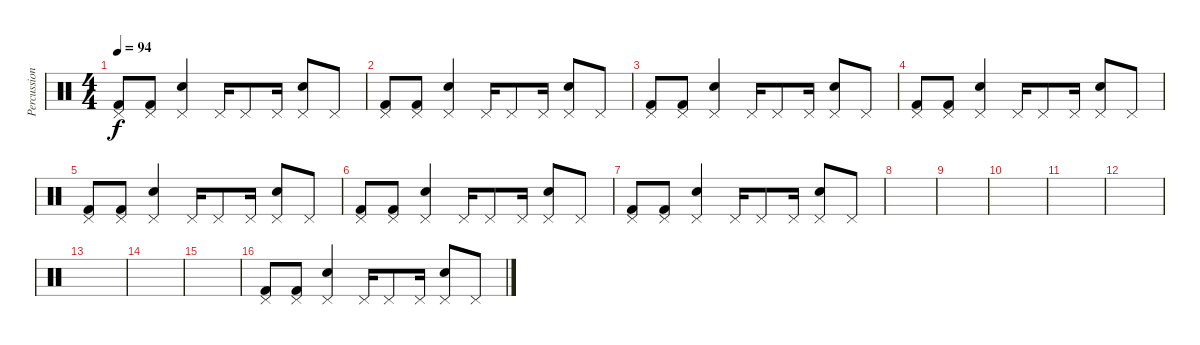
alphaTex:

\track ("Percussions" "Percussion") {instrument percussion}
\staff {score}
\articulation defaults
\ts (4 4)
\tempo 94
\clef neutral
\ks c
("Pedal Hi-Hat (hit)" "Kick (hit) 2").8{dy f} ("Pedal Hi-Hat (hit)" "Kick (hit) 2").8 ("Pedal Hi-Hat (hit)" "Electric Snare (hit)").4 "Pedal Hi-Hat (hit)".16 "Pedal Hi-Hat (hit)".8 "Pedal Hi-Hat (hit)".16 ("Pedal Hi-Hat (hit)" "Electric Snare (hit)").8 "Pedal Hi-Hat (hit)".8 |
("Pedal Hi-Hat (hit)" "Kick (hit) 2").8 ("Pedal Hi-Hat (hit)" "Kick (hit) 2").8 ("Pedal Hi-Hat (hit)" "Electric Snare (hit)").4 "Pedal Hi-Hat (hit)".16 "Pedal Hi-Hat (hit)".8 "Pedal Hi-Hat (hit)".16 ("Pedal Hi-Hat (hit)" "Electric Snare (hit)").8 "Pedal Hi-Hat (hit)".8 |
("Pedal Hi-Hat (hit)" "Kick (hit) 2").8 ("Pedal Hi-Hat (hit)" "Kick (hit) 2").8 ("Pedal Hi-Hat (hit)" "Electric Snare (hit)").4 "Pedal Hi-Hat (hit)".16 "Pedal Hi-Hat (hit)".8 "Pedal Hi-Hat (hit)".16 ("Pedal Hi-Hat (hit)" "Electric Snare (hit)").8 "Pedal Hi-Hat (hit)".8 |
("Pedal Hi-Hat (hit)" "Kick (hit) 2").8 ("Pedal Hi-Hat (hit)" "Kick (hit) 2").8 ("Pedal Hi-Hat (hit)" "Electric Snare (hit)").4 "Pedal Hi-Hat (hit)".16 "Pedal Hi-Hat (hit)".8 "Pedal Hi-Hat (hit)".16 ("Pedal Hi-Hat (hit)" "Electric Snare (hit)").8 "Pedal Hi-Hat (hit)".8 |
("Pedal Hi-Hat (hit)" "Kick (hit) 2").8 ("Pedal Hi-Hat (hit)" "Kick (hit) 2").8 ("Pedal Hi-Hat (hit)" "Electric Snare (hit)").4 "Pedal Hi-Hat (hit)".16 "Pedal Hi-Hat (hit)".8 "Pedal Hi-Hat (hit)".16 ("Pedal Hi-Hat (hit)" "Electric Snare (hit)").8 "Pedal Hi-Hat (hit)".8 |
("Pedal Hi-Hat (hit)" "Kick (hit) 2").8 ("Pedal Hi-Hat (hit)" "Kick (hit) 2").8 ("Pedal Hi-Hat (hit)" "Electric Snare (hit)").4 "Pedal Hi-Hat (hit)".16 "Pedal Hi-Hat (hit)".8 "Pedal Hi-Hat (hit)".16 ("Pedal Hi-Hat (hit)" "Electric Snare (hit)").8 "Pedal Hi-Hat (hit)".8 |
("Pedal Hi-Hat (hit)" "Kick (hit) 2").8 ("Pedal Hi-Hat (hit)" "Kick (hit) 2").8 ("Pedal Hi-Hat (hit)" "Electric Snare (hit)").4 "Pedal Hi-Hat (hit)".16 "Pedal Hi-Hat (hit)".8 "Pedal Hi-Hat (hit)".16 ("Pedal Hi-Hat (hit)" "Electric Snare (hit)").8 "Pedal Hi-Hat (hit)".8 |
|
|
|
|
|
|
|
|
("Pedal Hi-Hat (hit)" "Kick (hit) 2").8 ("Pedal Hi-Hat (hit)" "Kick (hit) 2").8 ("Pedal Hi-Hat (hit)" "Electric Snare (hit)").4 "Pedal Hi-Hat (hit)".16 "Pedal Hi-Hat (hit)".8 "Pedal Hi-Hat (hit)".16 ("Pedal Hi-Hat (hit)" "Electric Snare (hit)").8 "Pedal Hi-Hat (hit)".8
